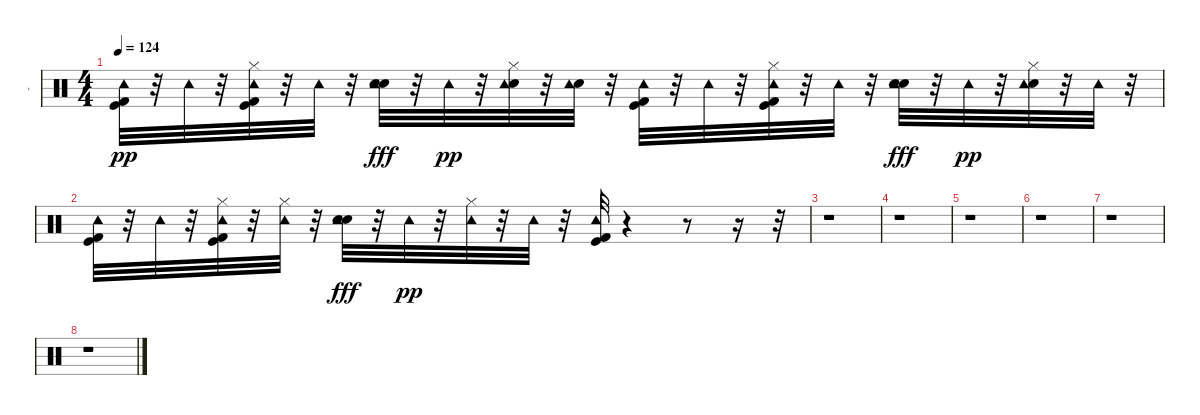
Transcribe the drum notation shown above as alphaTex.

\track ("-" "-") {instrument percussion}
\staff {score}
\articulation defaults
\ts (4 4)
\tempo 124
\clef neutral
\ks c
("Kick (hit)" "Kick (hit) 2" "Tambourine (hit)").32{dy pp} r.32 "Tambourine (hit)".32 r.32 ("Kick (hit)" "Kick (hit) 2" "Hi-Hat (closed)" "Tambourine (hit)").32 r.32 "Tambourine (hit)".32 r.32 ("Snare (hit) 2" "Hand Clap (hit)" "Tambourine (hit)").32{dy fff} r.32 "Tambourine (hit)".32{dy pp} r.32 ("Snare (hit) 2" "Hi-Hat (closed)" "Tambourine (hit)").32 r.32 ("Snare (hit) 2" "Tambourine (hit)").32 r.32 ("Kick (hit)" "Kick (hit) 2" "Tambourine (hit)").32 r.32 "Tambourine (hit)".32 r.32 ("Kick (hit)" "Kick (hit) 2" "Hi-Hat (closed)" "Tambourine (hit)").32 r.32 "Tambourine (hit)".32 r.32 ("Snare (hit) 2" "Hand Clap (hit)" "Tambourine (hit)").32{dy fff} r.32 "Tambourine (hit)".32{dy pp} r.32 ("Hand Clap (hit)" "Hi-Hat (closed)" "Tambourine (hit)").32 r.32 "Tambourine (hit)".32 r.32 |
("Kick (hit)" "Kick (hit) 2" "Tambourine (hit)").32 r.32 "Tambourine (hit)".32 r.32 ("Kick (hit)" "Kick (hit) 2" "Hi-Hat (closed)" "Tambourine (hit)").32 r.32 ("Hi-Hat (closed)" "Tambourine (hit)").32 r.32 ("Snare (hit) 2" "Hand Clap (hit)" "Tambourine (hit)").32{dy fff} r.32 "Tambourine (hit)".32{dy pp} r.32 ("Hi-Hat (closed)" "Tambourine (hit)").32 r.32 "Tambourine (hit)".32 r.32 ("Kick (hit)" "Kick (hit) 2" "Tambourine (hit)").32 r.4 r.8 r.16 r.32 |
r.1 |
r.1 |
r.1 |
r.1 |
r.1 |
r.1
